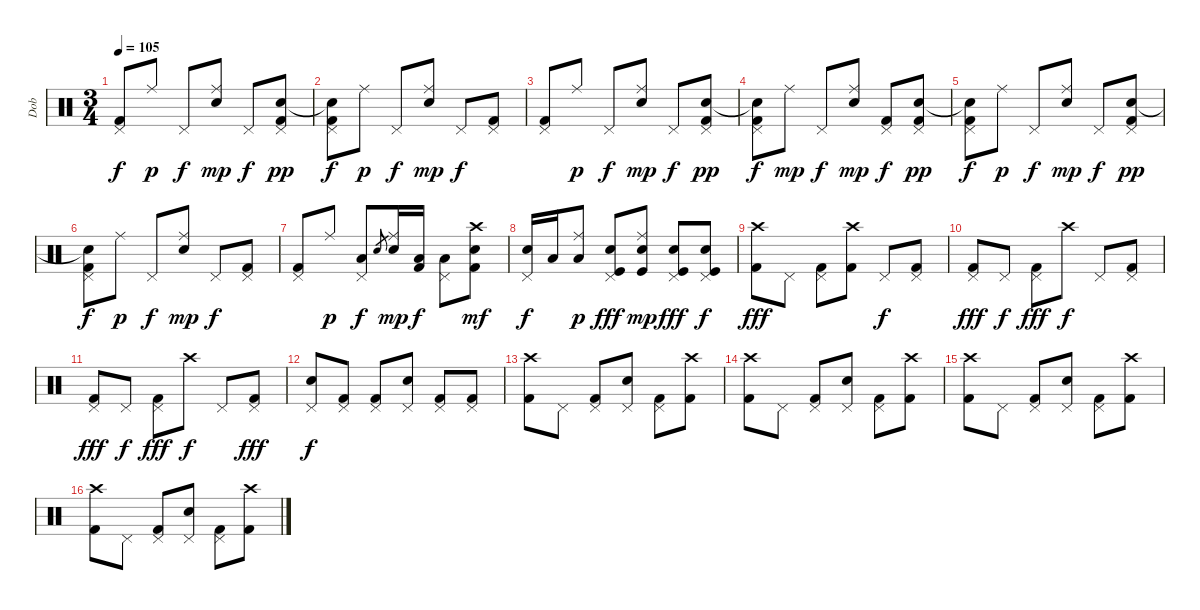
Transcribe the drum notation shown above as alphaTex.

\track ("Dob" "Dob") {instrument percussion}
\staff {score}
\articulation defaults
\ts (3 4)
\tempo 105
\clef neutral
\ks c
("Kick (hit) 2" "Pedal Hi-Hat (hit)").8{dy f} "Ride (middle)".8{dy p} "Pedal Hi-Hat (hit)".8{dy f} ("Electric Snare (hit)" "Ride (middle)").8{dy mp} "Pedal Hi-Hat (hit)".8{dy f} ("Electric Snare (hit)"{tr (40 32)} "Kick (hit) 2" "Pedal Hi-Hat (hit)").8{dy pp} |
("Snare (hit)"{t} "Kick (hit) 2" "Pedal Hi-Hat (hit)").8{dy f} "Ride (middle)".8{dy p} "Pedal Hi-Hat (hit)".8{dy f} ("Electric Snare (hit)" "Ride (middle)").8{dy mp} "Pedal Hi-Hat (hit)".8{dy f} ("Kick (hit) 2" "Pedal Hi-Hat (hit)").8 |
("Kick (hit) 2" "Pedal Hi-Hat (hit)").8 "Ride (middle)".8{dy p} "Pedal Hi-Hat (hit)".8{dy f} ("Electric Snare (hit)" "Ride (middle)").8{dy mp} "Pedal Hi-Hat (hit)".8{dy f} ("Electric Snare (hit)"{tr (40 32)} "Kick (hit) 2" "Pedal Hi-Hat (hit)").8{dy pp} |
("Snare (hit)"{t} "Kick (hit) 2" "Pedal Hi-Hat (hit)").8{dy f} "Ride (middle)".8{dy mp} "Pedal Hi-Hat (hit)".8{dy f} ("Electric Snare (hit)" "Ride (middle)").8{dy mp} ("Kick (hit) 2" "Pedal Hi-Hat (hit)").8{dy f} ("Electric Snare (hit)"{tr (40 32)} "Kick (hit) 2" "Pedal Hi-Hat (hit)").8{dy pp} |
("Snare (hit)"{t} "Kick (hit) 2" "Pedal Hi-Hat (hit)").8{dy f} "Ride (middle)".8{dy p} "Pedal Hi-Hat (hit)".8{dy f} ("Electric Snare (hit)" "Ride (middle)").8{dy mp} "Pedal Hi-Hat (hit)".8{dy f} ("Electric Snare (hit)"{tr (40 32)} "Kick (hit) 2" "Pedal Hi-Hat (hit)").8{dy pp} |
("Snare (hit)"{t} "Kick (hit) 2" "Pedal Hi-Hat (hit)").8{dy f} "Ride (middle)".8{dy p} "Pedal Hi-Hat (hit)".8{dy f} ("Electric Snare (hit)" "Ride (middle)").8{dy mp} "Pedal Hi-Hat (hit)".8{dy f} ("Kick (hit) 2" "Pedal Hi-Hat (hit)").8 |
("Kick (hit) 2" "Pedal Hi-Hat (hit)").8 "Ride (middle)".8{dy p} ("Low Tom (hit)" "Pedal Hi-Hat (hit)").8{dy f} "Electric Snare (hit)".8{gr} ("Electric Snare (hit)" "Ride (middle)").16{dy mp} ("Low Tom (hit)" "Kick (hit) 2").16{dy f} ("Low Tom (hit)" "Pedal Hi-Hat (hit)").8 ("Electric Snare (hit)" "Kick (hit) 2" "Crash high (hit)").8{dy mf} |
("Electric Snare (hit)" "Pedal Hi-Hat (hit)").16{dy f} "Low Tom (hit)".16 ("Low Tom (hit)" "Ride (middle)").8{dy p} ("Electric Snare (hit)" "Kick (hit)" "Pedal Hi-Hat (hit)").8{dy fff} ("Electric Snare (hit)" "Kick (hit)" "Ride (middle)").8{dy mp} ("Electric Snare (hit)" "Kick (hit)" "Pedal Hi-Hat (hit)").8{dy fff} ("Electric Snare (hit)" "Kick (hit)" "Pedal Hi-Hat (hit)").8{dy f} |
("Kick (hit) 2" "Crash high (hit)").8{dy fff} "Pedal Hi-Hat (hit)".8 ("Kick (hit) 2" "Pedal Hi-Hat (hit)").8 ("Kick (hit) 2" "Crash high (hit)").8 "Pedal Hi-Hat (hit)".8{dy f} ("Kick (hit) 2" "Pedal Hi-Hat (hit)").8 |
("Kick (hit) 2" "Pedal Hi-Hat (hit)").8{dy fff} "Pedal Hi-Hat (hit)".8{dy f} ("Kick (hit) 2" "Pedal Hi-Hat (hit)").8{dy fff} "Crash high (hit)".8{dy f} "Pedal Hi-Hat (hit)".8 ("Kick (hit) 2" "Pedal Hi-Hat (hit)").8 |
("Kick (hit) 2" "Pedal Hi-Hat (hit)").8{dy fff} "Pedal Hi-Hat (hit)".8{dy f} ("Kick (hit) 2" "Pedal Hi-Hat (hit)").8{dy fff} "Crash high (hit)".8{dy f} "Pedal Hi-Hat (hit)".8 ("Kick (hit) 2" "Pedal Hi-Hat (hit)").8{dy fff} |
("Electric Snare (hit)" "Pedal Hi-Hat (hit)").8{dy f} ("Kick (hit) 2" "Pedal Hi-Hat (hit)").8 ("Kick (hit) 2" "Pedal Hi-Hat (hit)").8 ("Electric Snare (hit)" "Pedal Hi-Hat (hit)").8 ("Kick (hit) 2" "Pedal Hi-Hat (hit)").8 ("Kick (hit) 2" "Pedal Hi-Hat (hit)").8 |
("Kick (hit) 2" "Crash high (hit)").8 "Pedal Hi-Hat (hit)".8 ("Kick (hit) 2" "Pedal Hi-Hat (hit)").8 ("Electric Snare (hit)" "Pedal Hi-Hat (hit)").8 ("Kick (hit) 2" "Pedal Hi-Hat (hit)").8 ("Kick (hit) 2" "Crash high (hit)").8 |
("Kick (hit) 2" "Crash high (hit)").8 "Pedal Hi-Hat (hit)".8 ("Kick (hit) 2" "Pedal Hi-Hat (hit)").8 ("Electric Snare (hit)" "Pedal Hi-Hat (hit)").8 ("Kick (hit) 2" "Pedal Hi-Hat (hit)").8 ("Kick (hit) 2" "Crash high (hit)").8 |
("Kick (hit) 2" "Crash high (hit)").8 "Pedal Hi-Hat (hit)".8 ("Kick (hit) 2" "Pedal Hi-Hat (hit)").8 ("Electric Snare (hit)" "Pedal Hi-Hat (hit)").8 ("Kick (hit) 2" "Pedal Hi-Hat (hit)").8 ("Kick (hit) 2" "Crash high (hit)").8 |
("Kick (hit) 2" "Crash high (hit)").8 "Pedal Hi-Hat (hit)".8 ("Kick (hit) 2" "Pedal Hi-Hat (hit)").8 ("Electric Snare (hit)" "Pedal Hi-Hat (hit)").8 ("Kick (hit) 2" "Pedal Hi-Hat (hit)").8 ("Kick (hit) 2" "Crash high (hit)").8
